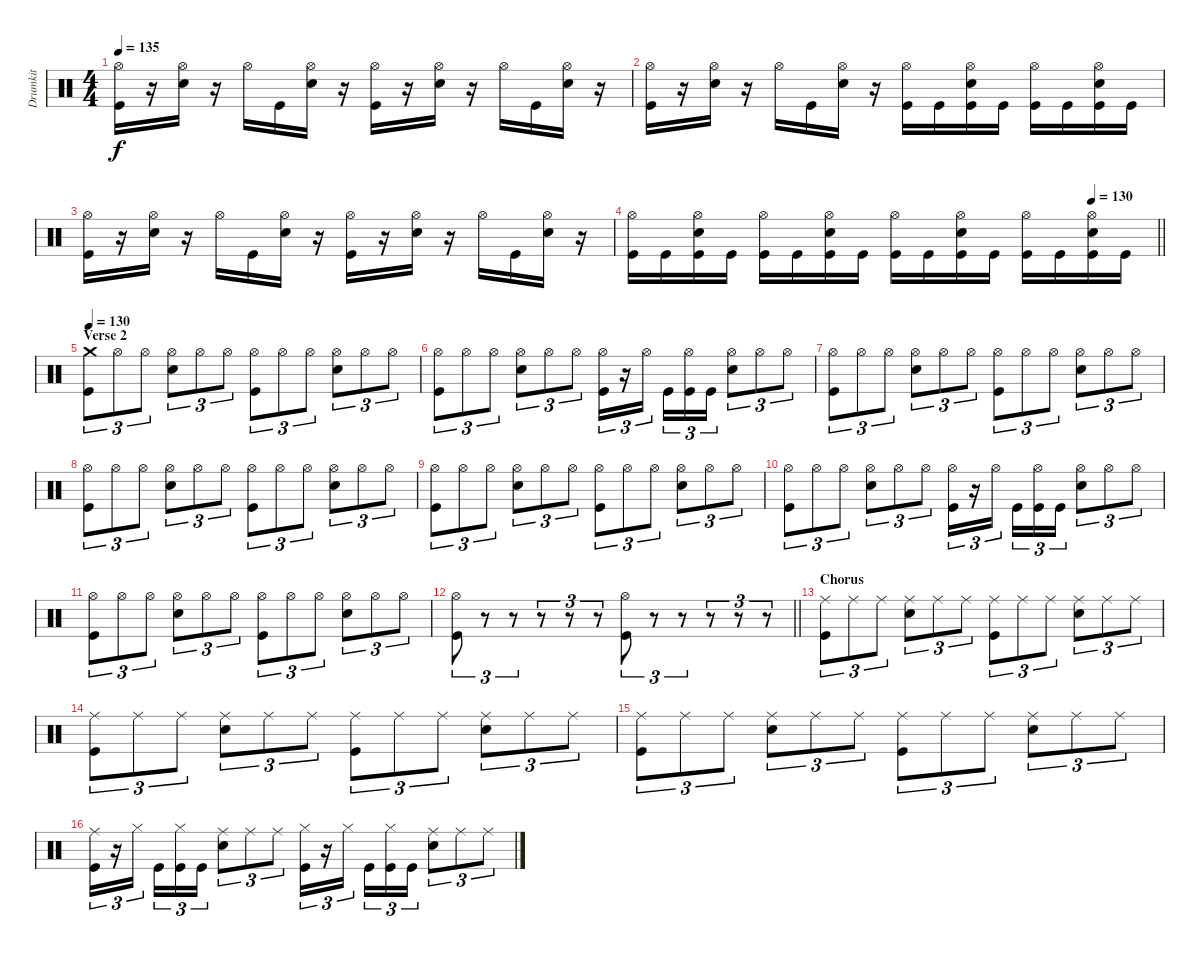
\track ("Drumkit" "Drumkit") {instrument percussion}
\staff {score}
\articulation defaults
\ts (4 4)
\tempo 135
\clef neutral
\ks c
("Kick (hit)" "Hi-Hat (open)").16{dy f} r.16 ("Hi-Hat (open)" "Snare (hit) 2").16 r.16 "Hi-Hat (open)".16 "Kick (hit)".16 ("Hi-Hat (open)" "Snare (hit) 2").16 r.16 ("Kick (hit)" "Hi-Hat (open)").16 r.16 ("Hi-Hat (open)" "Snare (hit) 2").16 r.16 "Hi-Hat (open)".16 "Kick (hit)".16 ("Hi-Hat (open)" "Snare (hit) 2").16 r.16 |
("Kick (hit)" "Hi-Hat (open)").16 r.16 ("Hi-Hat (open)" "Snare (hit) 2").16 r.16 "Hi-Hat (open)".16 "Kick (hit)".16 ("Hi-Hat (open)" "Snare (hit) 2").16 r.16 ("Kick (hit)" "Hi-Hat (open)").16 "Kick (hit)".16 ("Hi-Hat (open)" "Snare (hit) 2" "Kick (hit)").16 "Kick (hit)".16 ("Hi-Hat (open)" "Kick (hit)").16 "Kick (hit)".16 ("Hi-Hat (open)" "Snare (hit) 2" "Kick (hit)").16 "Kick (hit)".16 |
("Kick (hit)" "Hi-Hat (open)").16 r.16 ("Hi-Hat (open)" "Snare (hit) 2").16 r.16 "Hi-Hat (open)".16 "Kick (hit)".16 ("Hi-Hat (open)" "Snare (hit) 2").16 r.16 ("Kick (hit)" "Hi-Hat (open)").16 r.16 ("Hi-Hat (open)" "Snare (hit) 2").16 r.16 "Hi-Hat (open)".16 "Kick (hit)".16 ("Hi-Hat (open)" "Snare (hit) 2").16 r.16 |
\tempo (130 0.875)
\barLineRight lightlight
("Kick (hit)" "Hi-Hat (open)").16 "Kick (hit)".16 ("Hi-Hat (open)" "Snare (hit) 2" "Kick (hit)").16 "Kick (hit)".16 ("Hi-Hat (open)" "Kick (hit)").16 "Kick (hit)".16 ("Hi-Hat (open)" "Snare (hit) 2" "Kick (hit)").16 "Kick (hit)".16 ("Kick (hit)" "Hi-Hat (open)").16 "Kick (hit)".16 ("Hi-Hat (open)" "Snare (hit) 2" "Kick (hit)").16 "Kick (hit)".16 ("Hi-Hat (open)" "Kick (hit)").16 "Kick (hit)".16 ("Hi-Hat (open)" "Snare (hit) 2" "Kick (hit)").16 "Kick (hit)".16 |
\section ("" "Verse 2")
\tempo 130
("Crash medium (hit)" "Kick (hit)").8{tu (3 2)} "Hi-Hat (open)".8{tu (3 2)} "Hi-Hat (open)".8{tu (3 2)} ("Hi-Hat (open)" "Snare (hit) 2").8{tu (3 2)} "Hi-Hat (open)".8{tu (3 2)} "Hi-Hat (open)".8{tu (3 2)} ("Hi-Hat (open)" "Kick (hit)").8{tu (3 2)} "Hi-Hat (open)".8{tu (3 2)} "Hi-Hat (open)".8{tu (3 2)} ("Hi-Hat (open)" "Snare (hit) 2").8{tu (3 2)} "Hi-Hat (open)".8{tu (3 2)} "Hi-Hat (open)".8{tu (3 2)} |
("Hi-Hat (open)" "Kick (hit)").8{tu (3 2)} "Hi-Hat (open)".8{tu (3 2)} "Hi-Hat (open)".8{tu (3 2)} ("Hi-Hat (open)" "Snare (hit) 2").8{tu (3 2)} "Hi-Hat (open)".8{tu (3 2)} "Hi-Hat (open)".8{tu (3 2)} ("Hi-Hat (open)" "Kick (hit)").16{tu (3 2)} r.16{tu (3 2)} "Hi-Hat (open)".16{tu (3 2)} "Kick (hit)".16{tu (3 2)} ("Hi-Hat (open)" "Kick (hit)").16{tu (3 2)} "Kick (hit)".16{tu (3 2)} ("Hi-Hat (open)" "Snare (hit) 2").8{tu (3 2)} "Hi-Hat (open)".8{tu (3 2)} "Hi-Hat (open)".8{tu (3 2)} |
("Hi-Hat (open)" "Kick (hit)").8{tu (3 2)} "Hi-Hat (open)".8{tu (3 2)} "Hi-Hat (open)".8{tu (3 2)} ("Hi-Hat (open)" "Snare (hit) 2").8{tu (3 2)} "Hi-Hat (open)".8{tu (3 2)} "Hi-Hat (open)".8{tu (3 2)} ("Hi-Hat (open)" "Kick (hit)").8{tu (3 2)} "Hi-Hat (open)".8{tu (3 2)} "Hi-Hat (open)".8{tu (3 2)} ("Hi-Hat (open)" "Snare (hit) 2").8{tu (3 2)} "Hi-Hat (open)".8{tu (3 2)} "Hi-Hat (open)".8{tu (3 2)} |
("Hi-Hat (open)" "Kick (hit)").8{tu (3 2)} "Hi-Hat (open)".8{tu (3 2)} "Hi-Hat (open)".8{tu (3 2)} ("Hi-Hat (open)" "Snare (hit) 2").8{tu (3 2)} "Hi-Hat (open)".8{tu (3 2)} "Hi-Hat (open)".8{tu (3 2)} ("Hi-Hat (open)" "Kick (hit)").8{tu (3 2)} "Hi-Hat (open)".8{tu (3 2)} "Hi-Hat (open)".8{tu (3 2)} ("Hi-Hat (open)" "Snare (hit) 2").8{tu (3 2)} "Hi-Hat (open)".8{tu (3 2)} "Hi-Hat (open)".8{tu (3 2)} |
("Hi-Hat (open)" "Kick (hit)").8{tu (3 2)} "Hi-Hat (open)".8{tu (3 2)} "Hi-Hat (open)".8{tu (3 2)} ("Hi-Hat (open)" "Snare (hit) 2").8{tu (3 2)} "Hi-Hat (open)".8{tu (3 2)} "Hi-Hat (open)".8{tu (3 2)} ("Hi-Hat (open)" "Kick (hit)").8{tu (3 2)} "Hi-Hat (open)".8{tu (3 2)} "Hi-Hat (open)".8{tu (3 2)} ("Hi-Hat (open)" "Snare (hit) 2").8{tu (3 2)} "Hi-Hat (open)".8{tu (3 2)} "Hi-Hat (open)".8{tu (3 2)} |
("Hi-Hat (open)" "Kick (hit)").8{tu (3 2)} "Hi-Hat (open)".8{tu (3 2)} "Hi-Hat (open)".8{tu (3 2)} ("Hi-Hat (open)" "Snare (hit) 2").8{tu (3 2)} "Hi-Hat (open)".8{tu (3 2)} "Hi-Hat (open)".8{tu (3 2)} ("Hi-Hat (open)" "Kick (hit)").16{tu (3 2)} r.16{tu (3 2)} "Hi-Hat (open)".16{tu (3 2)} "Kick (hit)".16{tu (3 2)} ("Hi-Hat (open)" "Kick (hit)").16{tu (3 2)} "Kick (hit)".16{tu (3 2)} ("Hi-Hat (open)" "Snare (hit) 2").8{tu (3 2)} "Hi-Hat (open)".8{tu (3 2)} "Hi-Hat (open)".8{tu (3 2)} |
("Hi-Hat (open)" "Kick (hit)").8{tu (3 2)} "Hi-Hat (open)".8{tu (3 2)} "Hi-Hat (open)".8{tu (3 2)} ("Hi-Hat (open)" "Snare (hit) 2").8{tu (3 2)} "Hi-Hat (open)".8{tu (3 2)} "Hi-Hat (open)".8{tu (3 2)} ("Hi-Hat (open)" "Kick (hit)").8{tu (3 2)} "Hi-Hat (open)".8{tu (3 2)} "Hi-Hat (open)".8{tu (3 2)} ("Hi-Hat (open)" "Snare (hit) 2").8{tu (3 2)} "Hi-Hat (open)".8{tu (3 2)} "Hi-Hat (open)".8{tu (3 2)} |
\barLineRight lightlight
("Hi-Hat (open)" "Kick (hit)").8{tu (3 2)} r.8{tu (3 2)} r.8{tu (3 2)} r.8{tu (3 2)} r.8{tu (3 2)} r.8{tu (3 2)} ("Hi-Hat (open)" "Kick (hit)").8{tu (3 2)} r.8{tu (3 2)} r.8{tu (3 2)} r.8{tu (3 2)} r.8{tu (3 2)} r.8{tu (3 2)} |
\section ("" "Chorus")
("Kick (hit)" "Ride (middle)").8{tu (3 2)} "Ride (middle)".8{tu (3 2)} "Ride (middle)".8{tu (3 2)} ("Snare (hit) 2" "Ride (middle)").8{tu (3 2)} "Ride (middle)".8{tu (3 2)} "Ride (middle)".8{tu (3 2)} ("Kick (hit)" "Ride (middle)").8{tu (3 2)} "Ride (middle)".8{tu (3 2)} "Ride (middle)".8{tu (3 2)} ("Snare (hit) 2" "Ride (middle)").8{tu (3 2)} "Ride (middle)".8{tu (3 2)} "Ride (middle)".8{tu (3 2)} |
("Kick (hit)" "Ride (middle)").8{tu (3 2)} "Ride (middle)".8{tu (3 2)} "Ride (middle)".8{tu (3 2)} ("Snare (hit) 2" "Ride (middle)").8{tu (3 2)} "Ride (middle)".8{tu (3 2)} "Ride (middle)".8{tu (3 2)} ("Kick (hit)" "Ride (middle)").8{tu (3 2)} "Ride (middle)".8{tu (3 2)} "Ride (middle)".8{tu (3 2)} ("Snare (hit) 2" "Ride (middle)").8{tu (3 2)} "Ride (middle)".8{tu (3 2)} "Ride (middle)".8{tu (3 2)} |
("Kick (hit)" "Ride (middle)").8{tu (3 2)} "Ride (middle)".8{tu (3 2)} "Ride (middle)".8{tu (3 2)} ("Snare (hit) 2" "Ride (middle)").8{tu (3 2)} "Ride (middle)".8{tu (3 2)} "Ride (middle)".8{tu (3 2)} ("Kick (hit)" "Ride (middle)").8{tu (3 2)} "Ride (middle)".8{tu (3 2)} "Ride (middle)".8{tu (3 2)} ("Snare (hit) 2" "Ride (middle)").8{tu (3 2)} "Ride (middle)".8{tu (3 2)} "Ride (middle)".8{tu (3 2)} |
("Kick (hit)" "Ride (middle)").16{tu (3 2)} r.16{tu (3 2)} "Hi-Hat (closed)".16{tu (3 2)} "Kick (hit)".16{tu (3 2)} ("Kick (hit)" "Hi-Hat (closed)").16{tu (3 2)} "Kick (hit)".16{tu (3 2)} ("Snare (hit) 2" "Ride (middle)").8{tu (3 2)} "Ride (middle)".8{tu (3 2)} "Ride (middle)".8{tu (3 2)} ("Kick (hit)" "Hi-Hat (closed)").16{tu (3 2)} r.16{tu (3 2)} "Hi-Hat (closed)".16{tu (3 2)} "Kick (hit)".16{tu (3 2)} ("Kick (hit)" "Hi-Hat (closed)").16{tu (3 2)} "Kick (hit)".16{tu (3 2)} ("Snare (hit) 2" "Ride (middle)").8{tu (3 2)} "Ride (middle)".8{tu (3 2)} "Ride (middle)".8{tu (3 2)}
